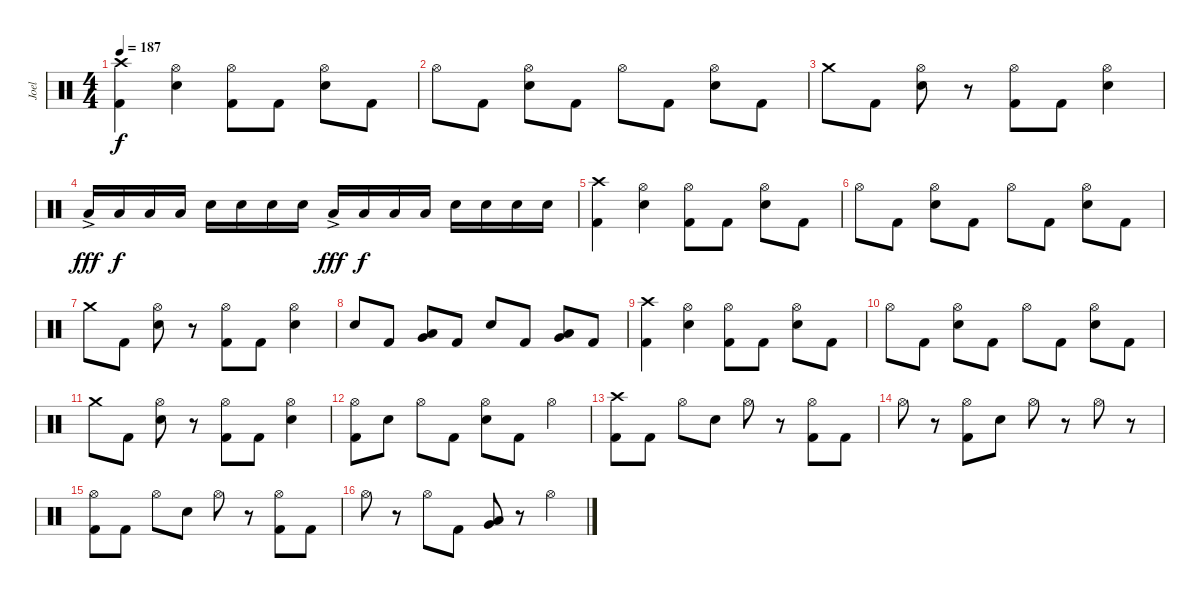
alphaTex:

\track ("Joel" "Joel") {instrument percussion}
\staff {score}
\articulation defaults
\ts (4 4)
\tempo 187
\clef neutral
\ks c
("Crash high (hit)" "Kick (hit) 2").4{dy f} ("Hi-Hat (open)" "Snare (hit) 2").4 ("Hi-Hat (open)" "Kick (hit) 2").8 "Kick (hit) 2".8 ("Hi-Hat (open)" "Snare (hit) 2").8 "Kick (hit) 2".8 |
"Hi-Hat (open)".8 "Kick (hit) 2".8 ("Hi-Hat (open)" "Snare (hit) 2").8 "Kick (hit) 2".8 "Hi-Hat (open)".8 "Kick (hit) 2".8 ("Hi-Hat (open)" "Snare (hit) 2").8 "Kick (hit) 2".8 |
"Crash medium (hit)".8 "Kick (hit) 2".8 ("Hi-Hat (open)" "Snare (hit) 2").8 r.8 ("Hi-Hat (open)" "Kick (hit) 2").8 "Kick (hit) 2".8 ("Hi-Hat (open)" "Snare (hit) 2").4 |
"Low Tom (hit)"{ac}.16{dy fff} "Low Tom (hit)".16{dy f} "Low Tom (hit)".16 "Low Tom (hit)".16 "Snare (hit) 2".16 "Snare (hit) 2".16 "Snare (hit) 2".16 "Snare (hit) 2".16 "Low Tom (hit)"{ac}.16{dy fff} "Low Tom (hit)".16{dy f} "Low Tom (hit)".16 "Low Tom (hit)".16 "Snare (hit) 2".16 "Snare (hit) 2".16 "Snare (hit) 2".16 "Snare (hit) 2".16 |
("Crash high (hit)" "Kick (hit) 2").4 ("Hi-Hat (open)" "Snare (hit) 2").4 ("Hi-Hat (open)" "Kick (hit) 2").8 "Kick (hit) 2".8 ("Hi-Hat (open)" "Snare (hit) 2").8 "Kick (hit) 2".8 |
"Hi-Hat (open)".8 "Kick (hit) 2".8 ("Hi-Hat (open)" "Snare (hit) 2").8 "Kick (hit) 2".8 "Hi-Hat (open)".8 "Kick (hit) 2".8 ("Hi-Hat (open)" "Snare (hit) 2").8 "Kick (hit) 2".8 |
"Crash medium (hit)".8 "Kick (hit) 2".8 ("Hi-Hat (open)" "Snare (hit) 2").8 r.8 ("Hi-Hat (open)" "Kick (hit) 2").8 "Kick (hit) 2".8 ("Hi-Hat (open)" "Snare (hit) 2").4 |
"Snare (hit) 2".8 "Kick (hit) 2".8 ("Very Low Tom (hit)" "Low Floor Tom (hit)").8 "Kick (hit) 2".8 "Snare (hit) 2".8 "Kick (hit) 2".8 ("Very Low Tom (hit)" "Low Floor Tom (hit)").8 "Kick (hit) 2".8 |
("Crash high (hit)" "Kick (hit) 2").4 ("Hi-Hat (open)" "Snare (hit) 2").4 ("Hi-Hat (open)" "Kick (hit) 2").8 "Kick (hit) 2".8 ("Hi-Hat (open)" "Snare (hit) 2").8 "Kick (hit) 2".8 |
"Hi-Hat (open)".8 "Kick (hit) 2".8 ("Hi-Hat (open)" "Snare (hit) 2").8 "Kick (hit) 2".8 "Hi-Hat (open)".8 "Kick (hit) 2".8 ("Hi-Hat (open)" "Snare (hit) 2").8 "Kick (hit) 2".8 |
"Crash medium (hit)".8 "Kick (hit) 2".8 ("Hi-Hat (open)" "Snare (hit) 2").8 r.8 ("Hi-Hat (open)" "Kick (hit) 2").8 "Kick (hit) 2".8 ("Hi-Hat (open)" "Snare (hit) 2").4 |
("Hi-Hat (open)" "Kick (hit) 2").8 "Snare (hit) 2".8 "Hi-Hat (open)".8 "Kick (hit) 2".8 ("Hi-Hat (open)" "Snare (hit) 2").8 "Kick (hit) 2".8 "Hi-Hat (open)".4 |
("Crash high (hit)" "Kick (hit) 2").8 "Kick (hit) 2".8 "Hi-Hat (open)".8 "Snare (hit) 2".8 "Hi-Hat (open)".8 r.8 ("Hi-Hat (open)" "Kick (hit) 2").8 "Kick (hit) 2".8 |
"Hi-Hat (open)".8 r.8 ("Hi-Hat (open)" "Kick (hit) 2").8 "Snare (hit) 2".8 "Hi-Hat (open)".8 r.8 "Hi-Hat (open)".8 r.8 |
("Hi-Hat (open)" "Kick (hit) 2").8 "Kick (hit) 2".8 "Hi-Hat (open)".8 "Snare (hit) 2".8 "Hi-Hat (open)".8 r.8 ("Hi-Hat (open)" "Kick (hit) 2").8 "Kick (hit) 2".8 |
"Hi-Hat (open)".8 r.8 "Hi-Hat (open)".8 "Kick (hit) 2".8 ("Low Tom (hit)" "Very Low Tom (hit)").8 r.8 "Hi-Hat (open)".4
